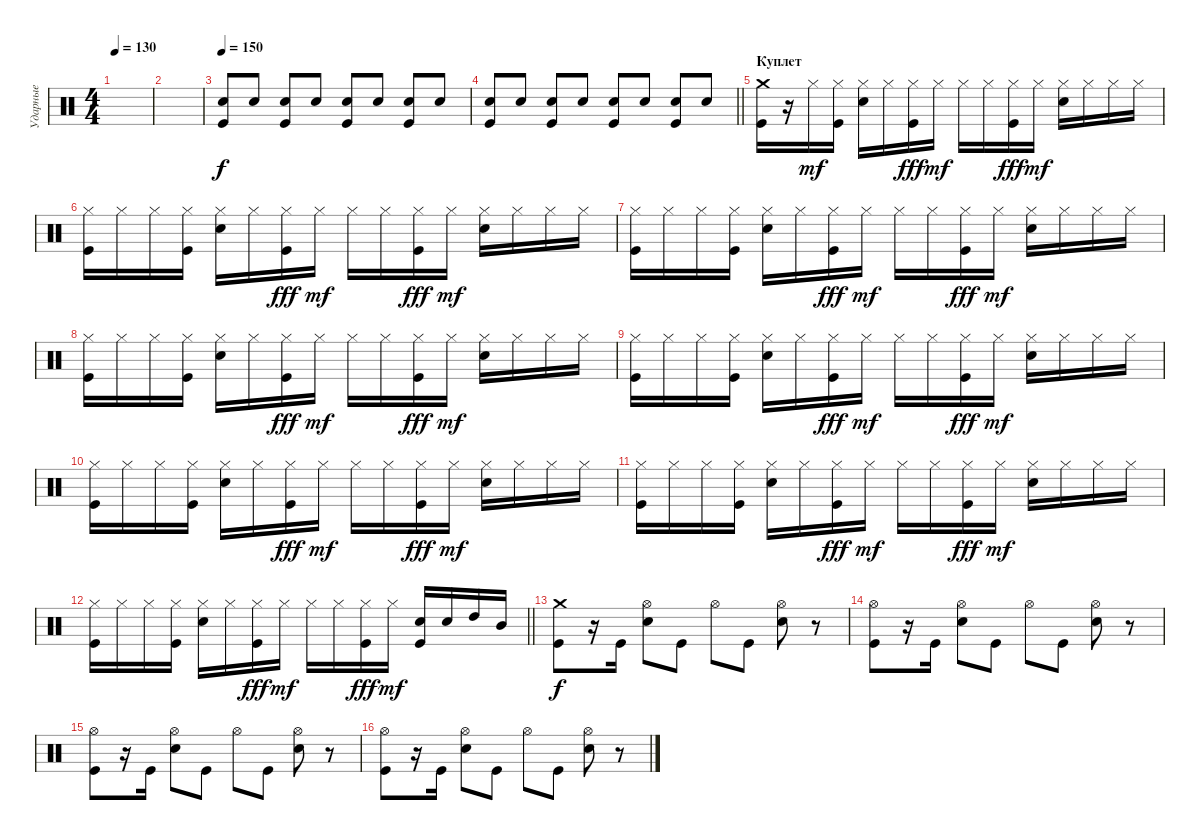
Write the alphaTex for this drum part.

\track ("Ударные" "Ударные") {instrument percussion}
\staff {score}
\articulation defaults
\ts (4 4)
\tempo 130
\clef neutral
\ks c
|
|
\tempo 150
("Electric Snare (hit)" "Kick (hit)").8 "Electric Snare (hit)".8 ("Electric Snare (hit)" "Kick (hit)").8 "Electric Snare (hit)".8 ("Electric Snare (hit)" "Kick (hit)").8 "Electric Snare (hit)".8 ("Electric Snare (hit)" "Kick (hit)").8 "Electric Snare (hit)".8 |
\barLineRight lightlight
("Electric Snare (hit)" "Kick (hit)").8 "Electric Snare (hit)".8 ("Electric Snare (hit)" "Kick (hit)").8 "Electric Snare (hit)".8 ("Electric Snare (hit)" "Kick (hit)").8 "Electric Snare (hit)".8 ("Electric Snare (hit)" "Kick (hit)").8 "Electric Snare (hit)".8 |
\section ("" "Куплет")
("Crash medium (hit)" "Kick (hit)").16 r.16 "Hi-Hat (closed)".16{dy mf} ("Hi-Hat (closed)" "Kick (hit)").16 ("Hi-Hat (closed)" "Electric Snare (hit)").16 "Hi-Hat (closed)".16 ("Hi-Hat (closed)" "Kick (hit)").16{dy fff} "Hi-Hat (closed)".16{dy mf} "Hi-Hat (closed)".16 "Hi-Hat (closed)".16 ("Hi-Hat (closed)" "Kick (hit)").16{dy fff} "Hi-Hat (closed)".16{dy mf} ("Hi-Hat (closed)" "Electric Snare (hit)").16 "Hi-Hat (closed)".16 "Hi-Hat (closed)".16 "Hi-Hat (closed)".16 |
("Hi-Hat (closed)" "Kick (hit)").16 "Hi-Hat (closed)".16 "Hi-Hat (closed)".16 ("Hi-Hat (closed)" "Kick (hit)").16 ("Hi-Hat (closed)" "Electric Snare (hit)").16 "Hi-Hat (closed)".16 ("Hi-Hat (closed)" "Kick (hit)").16{dy fff} "Hi-Hat (closed)".16{dy mf} "Hi-Hat (closed)".16 "Hi-Hat (closed)".16 ("Hi-Hat (closed)" "Kick (hit)").16{dy fff} "Hi-Hat (closed)".16{dy mf} ("Hi-Hat (closed)" "Electric Snare (hit)").16 "Hi-Hat (closed)".16 "Hi-Hat (closed)".16 "Hi-Hat (closed)".16 |
("Hi-Hat (closed)" "Kick (hit)").16 "Hi-Hat (closed)".16 "Hi-Hat (closed)".16 ("Hi-Hat (closed)" "Kick (hit)").16 ("Hi-Hat (closed)" "Electric Snare (hit)").16 "Hi-Hat (closed)".16 ("Hi-Hat (closed)" "Kick (hit)").16{dy fff} "Hi-Hat (closed)".16{dy mf} "Hi-Hat (closed)".16 "Hi-Hat (closed)".16 ("Hi-Hat (closed)" "Kick (hit)").16{dy fff} "Hi-Hat (closed)".16{dy mf} ("Hi-Hat (closed)" "Electric Snare (hit)").16 "Hi-Hat (closed)".16 "Hi-Hat (closed)".16 "Hi-Hat (closed)".16 |
("Hi-Hat (closed)" "Kick (hit)").16 "Hi-Hat (closed)".16 "Hi-Hat (closed)".16 ("Hi-Hat (closed)" "Kick (hit)").16 ("Hi-Hat (closed)" "Electric Snare (hit)").16 "Hi-Hat (closed)".16 ("Hi-Hat (closed)" "Kick (hit)").16{dy fff} "Hi-Hat (closed)".16{dy mf} "Hi-Hat (closed)".16 "Hi-Hat (closed)".16 ("Hi-Hat (closed)" "Kick (hit)").16{dy fff} "Hi-Hat (closed)".16{dy mf} ("Hi-Hat (closed)" "Electric Snare (hit)").16 "Hi-Hat (closed)".16 "Hi-Hat (closed)".16 "Hi-Hat (closed)".16 |
("Hi-Hat (closed)" "Kick (hit)").16 "Hi-Hat (closed)".16 "Hi-Hat (closed)".16 ("Hi-Hat (closed)" "Kick (hit)").16 ("Hi-Hat (closed)" "Electric Snare (hit)").16 "Hi-Hat (closed)".16 ("Hi-Hat (closed)" "Kick (hit)").16{dy fff} "Hi-Hat (closed)".16{dy mf} "Hi-Hat (closed)".16 "Hi-Hat (closed)".16 ("Hi-Hat (closed)" "Kick (hit)").16{dy fff} "Hi-Hat (closed)".16{dy mf} ("Hi-Hat (closed)" "Electric Snare (hit)").16 "Hi-Hat (closed)".16 "Hi-Hat (closed)".16 "Hi-Hat (closed)".16 |
("Hi-Hat (closed)" "Kick (hit)").16 "Hi-Hat (closed)".16 "Hi-Hat (closed)".16 ("Hi-Hat (closed)" "Kick (hit)").16 ("Hi-Hat (closed)" "Electric Snare (hit)").16 "Hi-Hat (closed)".16 ("Hi-Hat (closed)" "Kick (hit)").16{dy fff} "Hi-Hat (closed)".16{dy mf} "Hi-Hat (closed)".16 "Hi-Hat (closed)".16 ("Hi-Hat (closed)" "Kick (hit)").16{dy fff} "Hi-Hat (closed)".16{dy mf} ("Hi-Hat (closed)" "Electric Snare (hit)").16 "Hi-Hat (closed)".16 "Hi-Hat (closed)".16 "Hi-Hat (closed)".16 |
("Hi-Hat (closed)" "Kick (hit)").16 "Hi-Hat (closed)".16 "Hi-Hat (closed)".16 ("Hi-Hat (closed)" "Kick (hit)").16 ("Hi-Hat (closed)" "Electric Snare (hit)").16 "Hi-Hat (closed)".16 ("Hi-Hat (closed)" "Kick (hit)").16{dy fff} "Hi-Hat (closed)".16{dy mf} "Hi-Hat (closed)".16 "Hi-Hat (closed)".16 ("Hi-Hat (closed)" "Kick (hit)").16{dy fff} "Hi-Hat (closed)".16{dy mf} ("Hi-Hat (closed)" "Electric Snare (hit)").16 "Hi-Hat (closed)".16 "Hi-Hat (closed)".16 "Hi-Hat (closed)".16 |
\barLineRight lightlight
("Hi-Hat (closed)" "Kick (hit)").16 "Hi-Hat (closed)".16 "Hi-Hat (closed)".16 ("Hi-Hat (closed)" "Kick (hit)").16 ("Hi-Hat (closed)" "Electric Snare (hit)").16 "Hi-Hat (closed)".16 ("Hi-Hat (closed)" "Kick (hit)").16{dy fff} "Hi-Hat (closed)".16{dy mf} "Hi-Hat (closed)".16 "Hi-Hat (closed)".16 ("Hi-Hat (closed)" "Kick (hit)").16{dy fff} "Hi-Hat (closed)".16{dy mf} ("Electric Snare (hit)" "Kick (hit)").16 "Electric Snare (hit)".16 "High Tom (hit)".16 "Mid Tom (hit)".16 |
\section ("" " ")
("Crash medium (hit)" "Kick (hit)").8{dy f} r.16 "Kick (hit)".16 ("Hi-Hat (open)" "Electric Snare (hit)").8 "Kick (hit)".8 "Hi-Hat (open)".8 "Kick (hit)".8 ("Hi-Hat (open)" "Electric Snare (hit)").8 r.8 |
("Hi-Hat (open)" "Kick (hit)").8 r.16 "Kick (hit)".16 ("Hi-Hat (open)" "Electric Snare (hit)").8 "Kick (hit)".8 "Hi-Hat (open)".8 "Kick (hit)".8 ("Hi-Hat (open)" "Electric Snare (hit)").8 r.8 |
("Hi-Hat (open)" "Kick (hit)").8 r.16 "Kick (hit)".16 ("Hi-Hat (open)" "Electric Snare (hit)").8 "Kick (hit)".8 "Hi-Hat (open)".8 "Kick (hit)".8 ("Hi-Hat (open)" "Electric Snare (hit)").8 r.8 |
("Hi-Hat (open)" "Kick (hit)").8 r.16 "Kick (hit)".16 ("Hi-Hat (open)" "Electric Snare (hit)").8 "Kick (hit)".8 "Hi-Hat (open)".8 "Kick (hit)".8 ("Hi-Hat (open)" "Electric Snare (hit)").8 r.8
